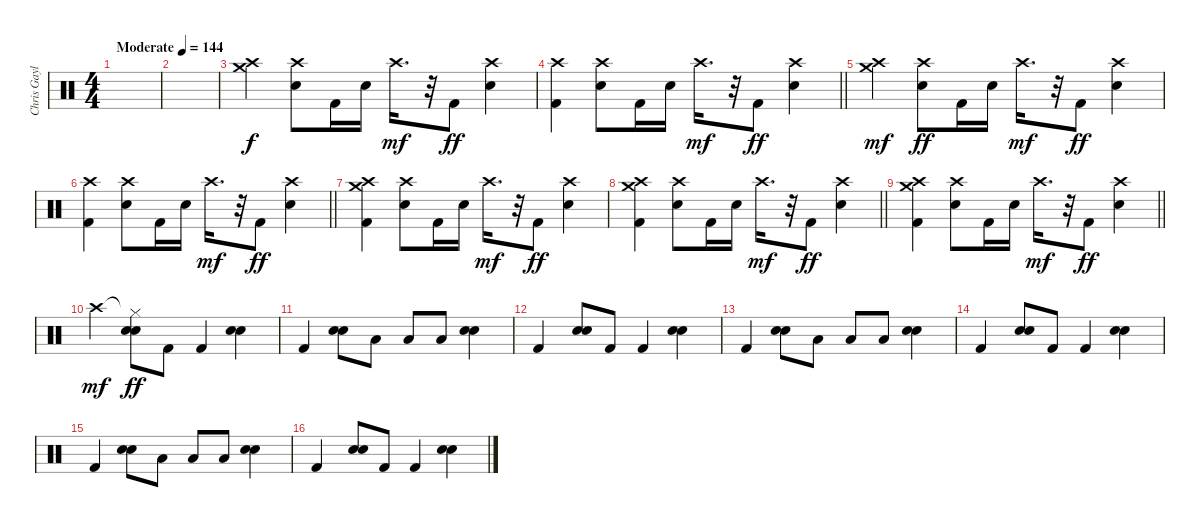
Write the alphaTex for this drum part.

\track ("Chris Gaylor" "Chris Gayl") {instrument percussion}
\staff {score}
\articulation defaults
\ts (4 4)
\tempo (144 "Moderate")
\clef neutral
\ks c
|
|
("Crash high (hit)" "Crash medium (hit)").4 ("Crash high (hit)" "Snare (hit) 2").8 "Kick (hit) 2".16 "Snare (hit) 2".16 "Crash high (hit)".16{d dy mf} r.32 "Kick (hit) 2".8{dy ff} ("Crash high (hit)" "Snare (hit) 2").4 |
\barLineRight lightlight
("Crash high (hit)" "Kick (hit) 2").4 ("Crash high (hit)" "Snare (hit) 2").8 "Kick (hit) 2".16 "Snare (hit) 2".16 "Crash high (hit)".16{d dy mf} r.32 "Kick (hit) 2".8{dy ff} ("Crash high (hit)" "Snare (hit) 2").4 |
("Crash medium (hit)" "Crash high (hit)").4{dy mf} ("Crash high (hit)" "Snare (hit) 2").8{dy ff} "Kick (hit) 2".16 "Snare (hit) 2".16 "Crash high (hit)".16{d dy mf} r.32 "Kick (hit) 2".8{dy ff} ("Crash high (hit)" "Snare (hit) 2").4 |
\barLineRight lightlight
("Crash high (hit)" "Kick (hit) 2").4 ("Crash high (hit)" "Snare (hit) 2").8 "Kick (hit) 2".16 "Snare (hit) 2".16 "Crash high (hit)".16{d dy mf} r.32 "Kick (hit) 2".8{dy ff} ("Crash high (hit)" "Snare (hit) 2").4 |
("Crash high (hit)" "Crash medium (hit)" "Kick (hit) 2").4 ("Crash high (hit)" "Snare (hit) 2").8 "Kick (hit) 2".16 "Snare (hit) 2".16 "Crash high (hit)".16{d dy mf} r.32 "Kick (hit) 2".8{dy ff} ("Crash high (hit)" "Snare (hit) 2").4 |
\barLineRight lightlight
("Crash high (hit)" "Crash medium (hit)" "Kick (hit) 2").4 ("Crash high (hit)" "Snare (hit) 2").8 "Kick (hit) 2".16 "Snare (hit) 2".16 "Crash high (hit)".16{d dy mf} r.32 "Kick (hit) 2".8{dy ff} ("Crash high (hit)" "Snare (hit) 2").4 |
\barLineRight lightlight
("Crash high (hit)" "Crash medium (hit)" "Kick (hit) 2").4 ("Crash high (hit)" "Snare (hit) 2").8 "Kick (hit) 2".16 "Snare (hit) 2".16 "Crash high (hit)".16{d dy mf} r.32 "Kick (hit) 2".8{dy ff} ("Crash high (hit)" "Snare (hit) 2").4 |
"Crash high (hit)".4{dy mf} ("Hi-Hat (closed)"{t} "Snare (hit) 2" "Snare (hit) 2").8{dy ff} "Kick (hit) 2".8 "Kick (hit) 2".4 ("Snare (hit) 2" "Snare (hit) 2").4 |
"Kick (hit) 2".4 ("Snare (hit) 2" "Snare (hit) 2").8 "Low Floor Tom (hit)".8 "Low Floor Tom (hit)".8 "Low Tom (hit)".8 ("Snare (hit) 2" "Snare (hit) 2").4 |
"Kick (hit) 2".4 ("Snare (hit) 2" "Snare (hit) 2").8 "Kick (hit) 2".8 "Kick (hit) 2".4 ("Snare (hit) 2" "Snare (hit) 2").4 |
"Kick (hit) 2".4 ("Snare (hit) 2" "Snare (hit) 2").8 "Low Floor Tom (hit)".8 "Low Floor Tom (hit)".8 "Low Tom (hit)".8 ("Snare (hit) 2" "Snare (hit) 2").4 |
"Kick (hit) 2".4 ("Snare (hit) 2" "Snare (hit) 2").8 "Kick (hit) 2".8 "Kick (hit) 2".4 ("Snare (hit) 2" "Snare (hit) 2").4 |
"Kick (hit) 2".4 ("Snare (hit) 2" "Snare (hit) 2").8 "Low Floor Tom (hit)".8 "Low Floor Tom (hit)".8 "Low Tom (hit)".8 ("Snare (hit) 2" "Snare (hit) 2").4 |
"Kick (hit) 2".4 ("Snare (hit) 2" "Snare (hit) 2").8 "Kick (hit) 2".8 "Kick (hit) 2".4 ("Snare (hit) 2" "Snare (hit) 2").4
